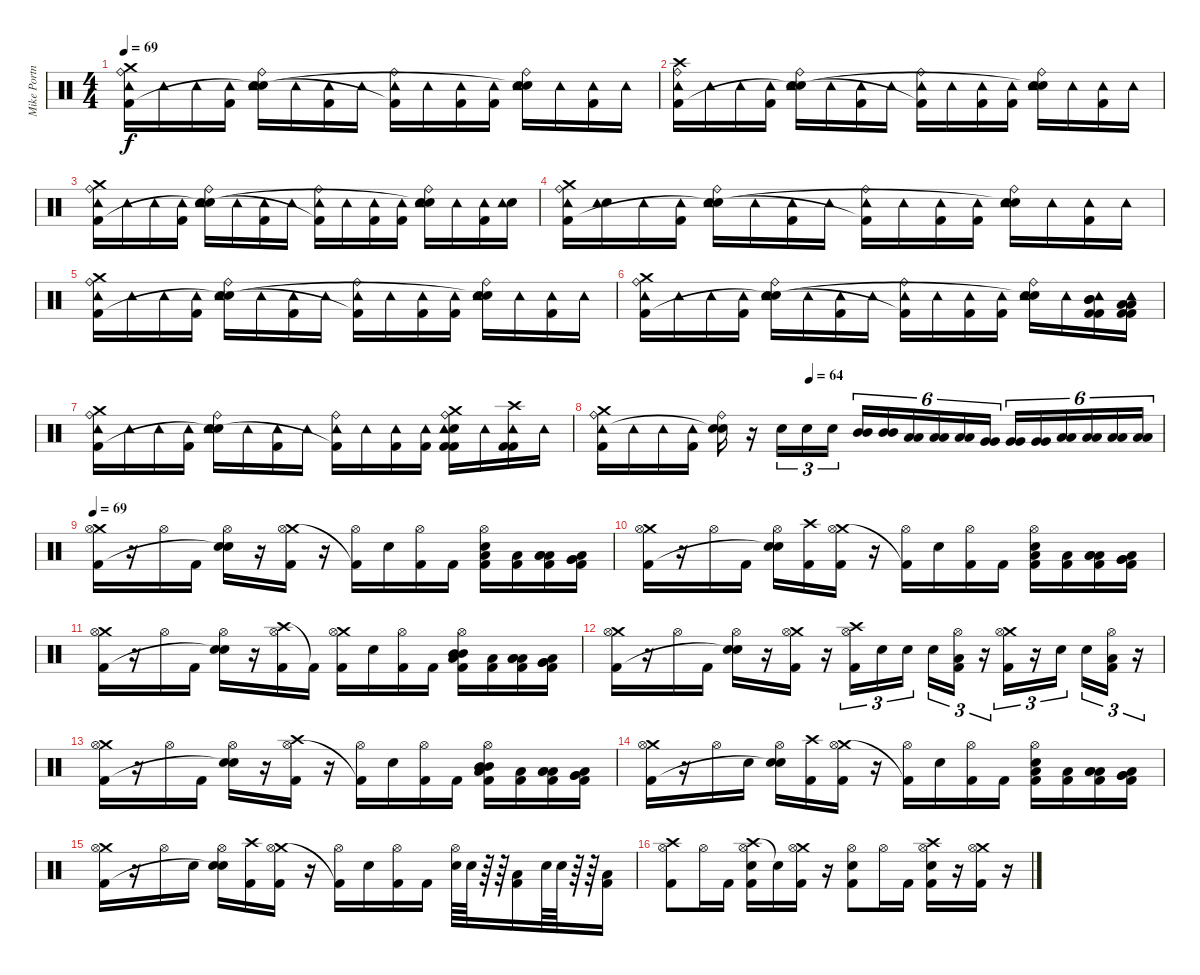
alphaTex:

\track ("Mike Portnoy" "Mike Portn") {instrument percussion}
\staff {score}
\articulation defaults
\ts (4 4)
\tempo 69
\clef neutral
\ks c
("Crash medium (hit)" "Ride (bell)" "Tambourine (hit)" "Kick (hit) 2").16{dy f} "Tambourine (hit)".16 "Tambourine (hit)".16 ("Tambourine (hit)" "Kick (hit) 2").16 ("Ride (bell)" "Electric Snare (hit)" "Tambourine (hit)" "Snare (hit)"{t}).16 "Tambourine (hit)".16 ("Tambourine (hit)" "Kick (hit) 2").16 "Tambourine (hit)".16 ("Ride (bell)" "Tambourine (hit)" "Kick (hit) 2"{t}).16 "Tambourine (hit)".16 ("Tambourine (hit)" "Kick (hit) 2").16 ("Tambourine (hit)" "Kick (hit) 2").16 ("Ride (bell)" "Electric Snare (hit)" "Tambourine (hit)" "Snare (hit)"{t}).16 "Tambourine (hit)".16 ("Tambourine (hit)" "Kick (hit) 2").16 "Tambourine (hit)".16 |
("Crash high (hit)" "Ride (bell)" "Tambourine (hit)" "Kick (hit) 2").16 "Tambourine (hit)".16 "Tambourine (hit)".16 ("Tambourine (hit)" "Kick (hit) 2").16 ("Ride (bell)" "Electric Snare (hit)" "Tambourine (hit)" "Snare (hit)"{t}).16 "Tambourine (hit)".16 ("Tambourine (hit)" "Kick (hit) 2").16 "Tambourine (hit)".16 ("Ride (bell)" "Tambourine (hit)" "Kick (hit) 2"{t}).16 "Tambourine (hit)".16 ("Tambourine (hit)" "Kick (hit) 2").16 ("Tambourine (hit)" "Kick (hit) 2").16 ("Ride (bell)" "Electric Snare (hit)" "Tambourine (hit)" "Snare (hit)"{t}).16 "Tambourine (hit)".16 ("Tambourine (hit)" "Kick (hit) 2").16 "Tambourine (hit)".16 |
("Crash medium (hit)" "Ride (bell)" "Tambourine (hit)" "Kick (hit) 2").16 "Tambourine (hit)".16 "Tambourine (hit)".16 ("Tambourine (hit)" "Kick (hit) 2").16 ("Ride (bell)" "Electric Snare (hit)" "Tambourine (hit)" "Snare (hit)"{t}).16 "Tambourine (hit)".16 ("Tambourine (hit)" "Kick (hit) 2").16 "Tambourine (hit)".16 ("Ride (bell)" "Tambourine (hit)" "Kick (hit) 2"{t}).16 "Tambourine (hit)".16 ("Tambourine (hit)" "Kick (hit) 2").16 ("Tambourine (hit)" "Kick (hit) 2").16 ("Ride (bell)" "Electric Snare (hit)" "Tambourine (hit)" "Snare (hit)"{t}).16 "Tambourine (hit)".16 ("Tambourine (hit)" "Kick (hit) 2").16 ("Electric Snare (hit)" "Tambourine (hit)").16 |
("Crash medium (hit)" "Ride (bell)" "Tambourine (hit)" "Kick (hit) 2").16 ("Electric Snare (hit)" "Tambourine (hit)").16 "Tambourine (hit)".16 ("Tambourine (hit)" "Kick (hit) 2").16 ("Ride (bell)" "Electric Snare (hit)" "Tambourine (hit)" "Snare (hit)"{t}).16 "Tambourine (hit)".16 ("Tambourine (hit)" "Kick (hit) 2").16 "Tambourine (hit)".16 ("Ride (bell)" "Tambourine (hit)" "Kick (hit) 2"{t}).16 "Tambourine (hit)".16 ("Tambourine (hit)" "Kick (hit) 2").16 ("Tambourine (hit)" "Kick (hit) 2").16 ("Ride (bell)" "Electric Snare (hit)" "Tambourine (hit)" "Snare (hit)"{t}).16 "Tambourine (hit)".16 ("Tambourine (hit)" "Kick (hit) 2").16 "Tambourine (hit)".16 |
("Crash medium (hit)" "Ride (bell)" "Tambourine (hit)" "Kick (hit) 2").16 "Tambourine (hit)".16 "Tambourine (hit)".16 ("Tambourine (hit)" "Kick (hit) 2").16 ("Ride (bell)" "Electric Snare (hit)" "Tambourine (hit)" "Snare (hit)"{t}).16 "Tambourine (hit)".16 ("Tambourine (hit)" "Kick (hit) 2").16 "Tambourine (hit)".16 ("Ride (bell)" "Tambourine (hit)" "Kick (hit) 2"{t}).16 "Tambourine (hit)".16 ("Tambourine (hit)" "Kick (hit) 2").16 ("Tambourine (hit)" "Kick (hit) 2").16 ("Ride (bell)" "Electric Snare (hit)" "Tambourine (hit)" "Snare (hit)"{t}).16 "Tambourine (hit)".16 ("Tambourine (hit)" "Kick (hit) 2").16 "Tambourine (hit)".16 |
("Crash medium (hit)" "Ride (bell)" "Tambourine (hit)" "Kick (hit) 2").16 "Tambourine (hit)".16 "Tambourine (hit)".16 ("Tambourine (hit)" "Kick (hit) 2").16 ("Ride (bell)" "Electric Snare (hit)" "Tambourine (hit)" "Snare (hit)"{t}).16 "Tambourine (hit)".16 ("Tambourine (hit)" "Kick (hit) 2").16 "Tambourine (hit)".16 ("Ride (bell)" "Tambourine (hit)" "Kick (hit) 2"{t}).16 "Tambourine (hit)".16 ("Tambourine (hit)" "Kick (hit) 2").16 ("Tambourine (hit)" "Kick (hit) 2").16 ("Ride (bell)" "Electric Snare (hit)" "Tambourine (hit)" "Snare (hit)"{t}).16 "Tambourine (hit)".16 ("Mid Tom (hit)" "Mid Tom (hit)" "Tambourine (hit)" "Kick (hit) 2" "Kick (hit) 2").16 ("Low Tom (hit)" "Low Tom (hit)" "Tambourine (hit)" "Kick (hit) 2" "Kick (hit) 2").16 |
("Crash medium (hit)" "Ride (bell)" "Tambourine (hit)" "Kick (hit) 2").16 "Tambourine (hit)".16 "Tambourine (hit)".16 ("Tambourine (hit)" "Kick (hit) 2").16 ("Ride (bell)" "Electric Snare (hit)" "Tambourine (hit)" "Snare (hit)"{t}).16 "Tambourine (hit)".16 ("Tambourine (hit)" "Kick (hit) 2").16 "Tambourine (hit)".16 ("Ride (bell)" "Tambourine (hit)" "Kick (hit) 2"{t}).16 "Tambourine (hit)".16 ("Tambourine (hit)" "Kick (hit) 2").16 ("Tambourine (hit)" "Kick (hit) 2").16 ("Crash medium (hit)" "Ride (bell)" "Electric Snare (hit)" "Tambourine (hit)" "Kick (hit) 2" "Kick (hit) 2").16 "Tambourine (hit)".16 ("Crash high (hit)" "Tambourine (hit)" "Kick (hit) 2" "Kick (hit) 2").16 "Tambourine (hit)".16 |
\tempo (64 0.375)
("Crash medium (hit)" "Ride (bell)" "Tambourine (hit)" "Kick (hit) 2").16 "Tambourine (hit)".16 "Tambourine (hit)".16 ("Tambourine (hit)" "Kick (hit) 2").16 ("Ride (bell)" "Electric Snare (hit)" "Snare (hit)"{t}).16 r.16 "Electric Snare (hit)".16{tu (3 2)} "Electric Snare (hit)".16{tu (3 2)} "Electric Snare (hit)".16{tu (3 2)} ("Mid Tom (hit)" "Mid Tom (hit)").16{tu (6 4)} ("Mid Tom (hit)" "Mid Tom (hit)").16{tu (6 4)} ("Low Tom (hit)" "Low Tom (hit)").16{tu (6 4)} ("Low Tom (hit)" "Low Tom (hit)").16{tu (6 4)} ("Low Tom (hit)" "Low Tom (hit)").16{tu (6 4)} ("Very Low Tom (hit)" "Very Low Tom (hit)").16{tu (6 4)} ("Very Low Tom (hit)" "Very Low Tom (hit)").16{tu (6 4)} ("Very Low Tom (hit)" "Very Low Tom (hit)").16{tu (6 4)} ("Low Floor Tom (hit)" "Low Floor Tom (hit)").16{tu (6 4)} ("Low Floor Tom (hit)" "Low Floor Tom (hit)").16{tu (6 4)} ("Low Floor Tom (hit)" "Low Floor Tom (hit)").16{tu (6 4)} ("Low Floor Tom (hit)" "Low Floor Tom (hit)").16{tu (6 4)} |
\tempo 69
("Crash medium (hit)" "Hi-Hat (open)" "Kick (hit) 2").16 r.16 "Hi-Hat (open)".16 "Kick (hit) 2".16 ("Hi-Hat (open)" "Electric Snare (hit)" "Snare (hit)"{t}).16 r.16 ("Crash medium (hit)" "Hi-Hat (open)" "Kick (hit) 2").16 r.16 ("Hi-Hat (open)" "Kick (hit) 2"{t}).16 "Electric Snare (hit)".16 ("Hi-Hat (open)" "Kick (hit) 2").16 "Kick (hit) 2".16 ("Hi-Hat (open)" "Electric Snare (hit)" "Low Floor Tom (hit)" "Kick (hit) 2").16 ("Low Floor Tom (hit)" "Kick (hit) 2").16 ("Low Tom (hit)" "Low Tom (hit)" "Low Floor Tom (hit)" "Kick (hit) 2").16 ("Very Low Tom (hit)" "Very Low Tom (hit)" "Low Floor Tom (hit)" "Kick (hit) 2").16 |
("Crash medium (hit)" "Hi-Hat (open)" "Kick (hit) 2").16 r.16 "Hi-Hat (open)".16 "Kick (hit) 2".16 ("Hi-Hat (open)" "Electric Snare (hit)" "Snare (hit)"{t}).16 ("Crash high (hit)" "Kick (hit) 2").16 ("Crash medium (hit)" "Hi-Hat (open)" "Kick (hit) 2").16 r.16 ("Hi-Hat (open)" "Kick (hit) 2"{t}).16 "Electric Snare (hit)".16 ("Hi-Hat (open)" "Kick (hit) 2").16 "Kick (hit) 2".16 ("Hi-Hat (open)" "Electric Snare (hit)" "Low Floor Tom (hit)" "Kick (hit) 2").16 ("Low Floor Tom (hit)" "Kick (hit) 2").16 ("Low Tom (hit)" "Low Tom (hit)" "Low Floor Tom (hit)" "Kick (hit) 2").16 ("Very Low Tom (hit)" "Very Low Tom (hit)" "Low Floor Tom (hit)" "Kick (hit) 2").16 |
("Crash medium (hit)" "Hi-Hat (open)" "Kick (hit) 2").16 r.16 "Hi-Hat (open)".16 "Kick (hit) 2".16 ("Hi-Hat (open)" "Electric Snare (hit)" "Snare (hit)"{t}).16 r.16 ("Crash high (hit)" "Hi-Hat (open)" "Kick (hit) 2").16 "Kick (hit) 2"{t}.16 ("Crash medium (hit)" "Hi-Hat (open)" "Kick (hit) 2").16 "Electric Snare (hit)".16 ("Hi-Hat (open)" "Kick (hit) 2").16 "Kick (hit) 2".16 ("Hi-Hat (open)" "Mid Tom (hit)" "Mid Tom (hit)" "Low Floor Tom (hit)" "Kick (hit) 2").16 ("Low Floor Tom (hit)" "Kick (hit) 2").16 ("Low Tom (hit)" "Low Tom (hit)" "Low Floor Tom (hit)" "Kick (hit) 2").16 ("Very Low Tom (hit)" "Very Low Tom (hit)" "Low Floor Tom (hit)" "Kick (hit) 2").16 |
("Crash medium (hit)" "Hi-Hat (open)" "Kick (hit) 2").16 r.16 "Hi-Hat (open)".16 "Kick (hit) 2".16 ("Hi-Hat (open)" "Electric Snare (hit)" "Snare (hit)"{t}).16 r.16 ("Crash medium (hit)" "Hi-Hat (open)" "Kick (hit) 2").16 r.16 ("Crash high (hit)" "Hi-Hat (open)" "Kick (hit) 2").16{tu (3 2)} "Electric Snare (hit)".16{tu (3 2)} "Electric Snare (hit)".16{tu (3 2)} "Electric Snare (hit)".16{tu (3 2)} ("Hi-Hat (open)" "Low Floor Tom (hit)" "Kick (hit) 2").16{tu (3 2)} r.16{tu (3 2)} ("Crash medium (hit)" "Hi-Hat (open)" "Kick (hit) 2").16{tu (3 2)} r.16{tu (3 2)} "Electric Snare (hit)".16{tu (3 2)} "Electric Snare (hit)".16{tu (3 2)} ("Hi-Hat (open)" "Low Floor Tom (hit)" "Kick (hit) 2").16{tu (3 2)} r.16{tu (3 2)} |
("Crash medium (hit)" "Hi-Hat (open)" "Kick (hit) 2").16 r.16 "Hi-Hat (open)".16 "Kick (hit) 2".16 ("Hi-Hat (open)" "Electric Snare (hit)" "Snare (hit)"{t}).16 r.16 ("Crash high (hit)" "Hi-Hat (open)" "Kick (hit) 2").16 r.16 ("Hi-Hat (open)" "Kick (hit) 2"{t}).16 "Electric Snare (hit)".16 ("Hi-Hat (open)" "Kick (hit) 2").16 "Kick (hit) 2".16 ("Hi-Hat (open)" "Mid Tom (hit)" "Mid Tom (hit)" "Low Floor Tom (hit)" "Kick (hit) 2").16 ("Low Floor Tom (hit)" "Kick (hit) 2").16 ("Low Tom (hit)" "Low Tom (hit)" "Low Floor Tom (hit)" "Kick (hit) 2").16 ("Very Low Tom (hit)" "Very Low Tom (hit)" "Low Floor Tom (hit)" "Kick (hit) 2").16 |
("Crash medium (hit)" "Hi-Hat (open)" "Kick (hit) 2").16 r.16 "Hi-Hat (open)".16 "Electric Snare (hit)".16 ("Hi-Hat (open)" "Electric Snare (hit)" "Snare (hit)"{t}).16 ("Crash high (hit)" "Kick (hit) 2").16 ("Crash medium (hit)" "Hi-Hat (open)" "Kick (hit) 2").16 r.16 ("Hi-Hat (open)" "Kick (hit) 2"{t}).16 "Electric Snare (hit)".16 ("Hi-Hat (open)" "Kick (hit) 2").16 "Kick (hit) 2".16 ("Hi-Hat (open)" "Electric Snare (hit)" "Low Floor Tom (hit)" "Kick (hit) 2").16 ("Low Floor Tom (hit)" "Kick (hit) 2").16 ("Low Tom (hit)" "Low Tom (hit)" "Low Floor Tom (hit)" "Kick (hit) 2").16 ("Very Low Tom (hit)" "Very Low Tom (hit)" "Low Floor Tom (hit)" "Kick (hit) 2").16 |
("Crash medium (hit)" "Hi-Hat (open)" "Kick (hit) 2").16 r.16 "Hi-Hat (open)".16 "Electric Snare (hit)".16 ("Hi-Hat (open)" "Electric Snare (hit)" "Snare (hit)"{t}).16 ("Crash high (hit)" "Kick (hit) 2").16 ("Crash medium (hit)" "Hi-Hat (open)" "Kick (hit) 2").16 r.16 ("Hi-Hat (open)" "Kick (hit) 2"{t}).16 "Electric Snare (hit)".16 ("Hi-Hat (open)" "Kick (hit) 2").16 "Kick (hit) 2".16 ("Hi-Hat (open)" "Electric Snare (hit)").64 "Electric Snare (hit)".64 r.64 r.64 ("Low Floor Tom (hit)" "Kick (hit) 2").16 "Electric Snare (hit)".64 "Electric Snare (hit)".64 r.64 r.64 ("Low Floor Tom (hit)" "Kick (hit) 2").16 |
("Crash high (hit)" "Hi-Hat (open)" "Kick (hit) 2").8 "Hi-Hat (open)".16 "Kick (hit) 2".16 ("Crash high (hit)" "Hi-Hat (open)" "Electric Snare (hit)" "Kick (hit) 2").16 "Snare (hit)"{t}.16 ("Crash medium (hit)" "Hi-Hat (open)" "Kick (hit) 2").16 r.16 ("Hi-Hat (open)" "Electric Snare (hit)" "Kick (hit) 2").8 "Hi-Hat (open)".16 "Kick (hit) 2".16 ("Crash high (hit)" "Hi-Hat (open)" "Electric Snare (hit)" "Kick (hit) 2").16 r.16 ("Crash medium (hit)" "Hi-Hat (open)" "Kick (hit) 2").16 r.16
